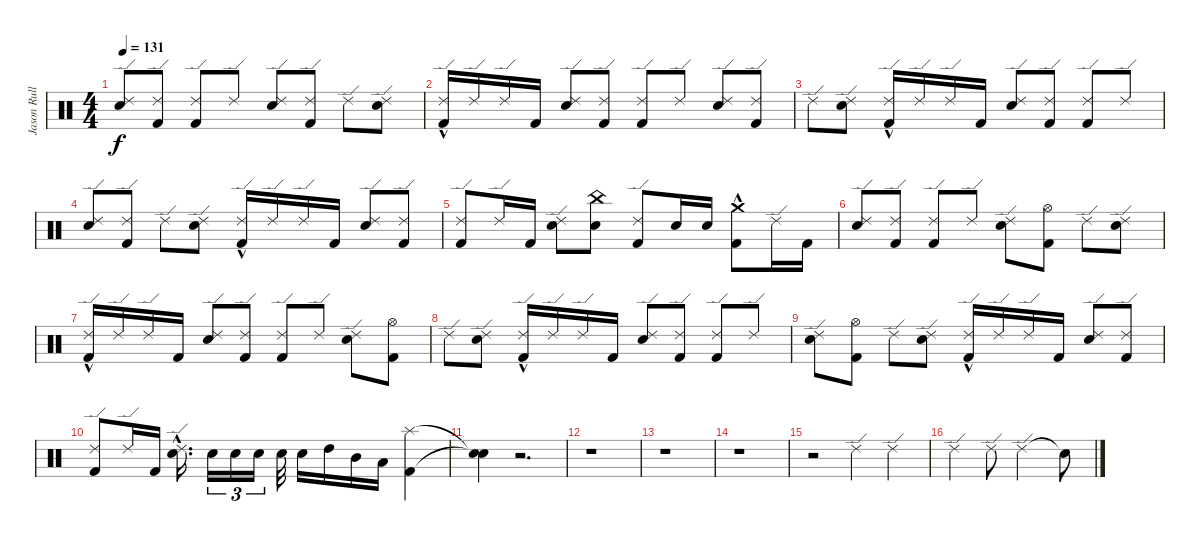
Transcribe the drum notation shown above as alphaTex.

\track ("Jason Rullo (Drums)" "Jason Rull") {instrument percussion}
\staff {score}
\articulation defaults
\ts (4 4)
\tempo 131
\clef neutral
\ks c
("Electric Snare (hit)" "Ride (edge) 2").8{dy f} ("Kick (hit) 2" "Ride (edge) 2").8 ("Kick (hit) 2" "Ride (edge) 2").8 "Ride (edge) 2".8 ("Electric Snare (hit)" "Ride (edge) 2").8 ("Kick (hit) 2" "Ride (edge) 2").8 "Ride (edge) 2".8 ("Electric Snare (hit)" "Ride (edge) 2").8 |
("Ride (edge) 2" "Kick (hit) 2"{hac}).16 "Ride (edge) 2".16 "Ride (edge) 2".16 "Kick (hit) 2".16 ("Electric Snare (hit)" "Ride (edge) 2").8 ("Kick (hit) 2" "Ride (edge) 2").8 ("Kick (hit) 2" "Ride (edge) 2").8 "Ride (edge) 2".8 ("Electric Snare (hit)" "Ride (edge) 2").8 ("Kick (hit) 2" "Ride (edge) 2").8 |
"Ride (edge) 2".8 ("Electric Snare (hit)" "Ride (edge) 2").8 ("Ride (edge) 2" "Kick (hit) 2"{hac}).16 "Ride (edge) 2".16 "Ride (edge) 2".16 "Kick (hit) 2".16 ("Electric Snare (hit)" "Ride (edge) 2").8 ("Kick (hit) 2" "Ride (edge) 2").8 ("Kick (hit) 2" "Ride (edge) 2").8 "Ride (edge) 2".8 |
("Electric Snare (hit)" "Ride (edge) 2").8 ("Kick (hit) 2" "Ride (edge) 2").8 "Ride (edge) 2".8 ("Electric Snare (hit)" "Ride (edge) 2").8 ("Ride (edge) 2" "Kick (hit) 2"{hac}).16 "Ride (edge) 2".16 "Ride (edge) 2".16 "Kick (hit) 2".16 ("Electric Snare (hit)" "Ride (edge) 2").8 ("Kick (hit) 2" "Ride (edge) 2").8 |
("Kick (hit) 2" "Ride (edge) 2").8 "Ride (edge) 2".16 "Kick (hit) 2".16 ("Electric Snare (hit)" "Ride (edge) 2").8 ("China (hit)" "Electric Snare (hit)").8 ("Ride (edge) 2" "Kick (hit) 2").8 "Electric Snare (hit)".16 "Electric Snare (hit)".16 ("Crash medium (hit)" "Kick (hit) 2"{hac}).8 "Ride (edge) 2".16 "Kick (hit) 2".16 |
("Electric Snare (hit)" "Ride (edge) 2").8 ("Kick (hit) 2" "Ride (edge) 2").8 ("Kick (hit) 2" "Ride (edge) 2").8 "Ride (edge) 2".8 ("Electric Snare (hit)" "Ride (edge) 2").8 ("Hi-Hat (open)" "Kick (hit) 2").8 "Ride (edge) 2".8 ("Electric Snare (hit)" "Ride (edge) 2").8 |
("Ride (edge) 2" "Kick (hit) 2"{hac}).16 "Ride (edge) 2".16 "Ride (edge) 2".16 "Kick (hit) 2".16 ("Electric Snare (hit)" "Ride (edge) 2").8 ("Kick (hit) 2" "Ride (edge) 2").8 ("Kick (hit) 2" "Ride (edge) 2").8 "Ride (edge) 2".8 ("Electric Snare (hit)" "Ride (edge) 2").8 ("Hi-Hat (open)" "Kick (hit) 2").8 |
"Ride (edge) 2".8 ("Electric Snare (hit)" "Ride (edge) 2").8 ("Ride (edge) 2" "Kick (hit) 2"{hac}).16 "Ride (edge) 2".16 "Ride (edge) 2".16 "Kick (hit) 2".16 ("Electric Snare (hit)" "Ride (edge) 2").8 ("Kick (hit) 2" "Ride (edge) 2").8 ("Kick (hit) 2" "Ride (edge) 2").8 "Ride (edge) 2".8 |
("Electric Snare (hit)" "Ride (edge) 2").8 ("Hi-Hat (open)" "Kick (hit) 2").8 "Ride (edge) 2".8 ("Electric Snare (hit)" "Ride (edge) 2").8 ("Ride (edge) 2" "Kick (hit) 2"{hac}).16 "Ride (edge) 2".16 "Ride (edge) 2".16 "Kick (hit) 2".16 ("Electric Snare (hit)" "Ride (edge) 2").8 ("Kick (hit) 2" "Ride (edge) 2").8 |
("Kick (hit) 2" "Ride (edge) 2").8 "Ride (edge) 2".16 "Kick (hit) 2".16 ("Electric Snare (hit)"{hac} "Ride (edge) 2").16{d} "Electric Snare (hit)".16{tu (3 2) volume 6} "Electric Snare (hit)".16{tu (3 2) volume 10} "Electric Snare (hit)".16{tu (3 2) volume 13} "Electric Snare (hit)".32{volume 16} "Electric Snare (hit)".16 "High Tom (hit)".16 "Mid Tom (hit)".16 "Low Tom (hit)".16 ("Splash (hit)" "Kick (hit) 2").4 |
("Snare (hit)"{t} "Snare (hit)"{t}).4 r.2{d} |
r.1 |
r.1 |
r.1 |
r.2 "Ride (edge) 2".4 "Ride (edge) 2".4 |
"Ride (edge) 2".4 "Ride (edge) 2".8 "Ride (edge) 2".2 "Snare (hit)"{t}.8
